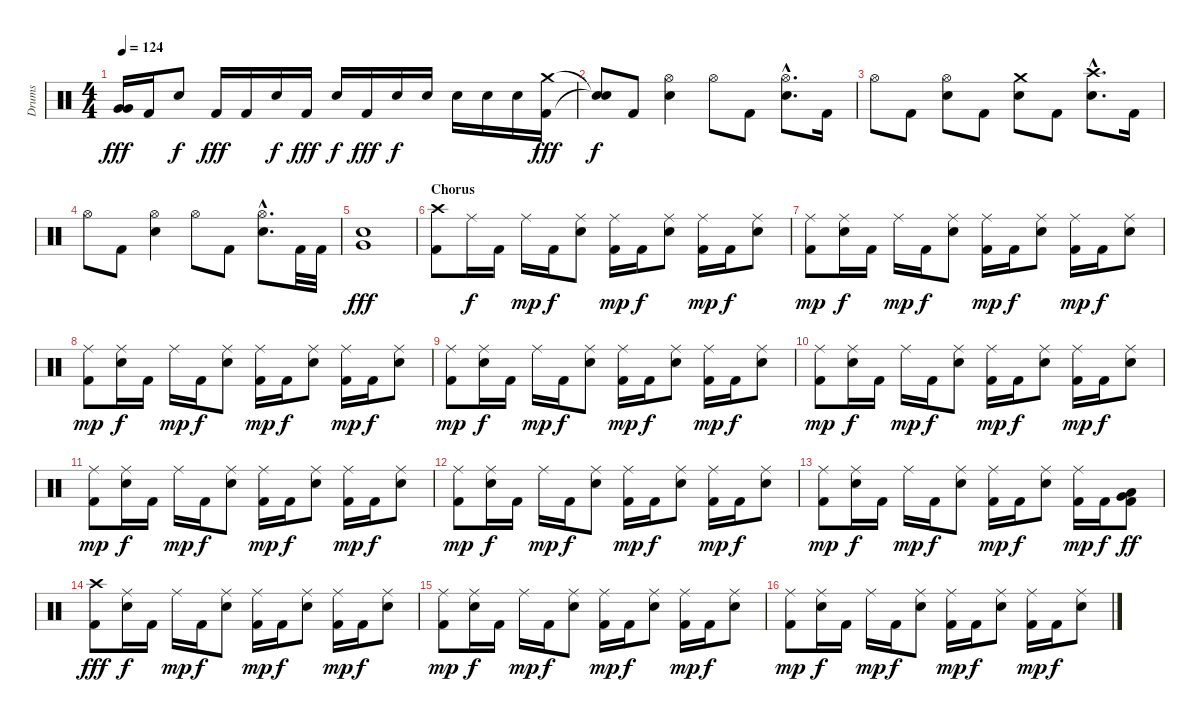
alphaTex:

\track ("Drums" "Drums") {instrument percussion}
\staff {score}
\articulation defaults
\ts (4 4)
\tempo 124
\clef neutral
\ks c
("Very Low Tom (hit)" "Very Low Tom (hit)").16{dy fff} "Kick (hit) 2".16 "Snare (hit) 2".8{dy f} "Kick (hit) 2".16{dy fff} "Kick (hit) 2".16 "Snare (hit) 2".16{dy f} "Kick (hit) 2".16{dy fff} "Snare (hit) 2".16{dy f} "Kick (hit) 2".16{dy fff} "Snare (hit) 2".16{dy f} "Snare (hit) 2".16 "Snare (hit) 2".16 "Snare (hit) 2".16 "Snare (hit) 2".16 ("Crash medium (hit)" "Kick (hit) 2").16{dy fff} |
("Snare (hit)"{t} "Snare (hit)"{t}).8{dy f} "Kick (hit) 2".8 ("Hi-Hat (open)" "Snare (hit) 2").4 "Hi-Hat (open)".8 "Kick (hit) 2".8 ("Hi-Hat (open)"{hac} "Snare (hit) 2"{hac}).8{d} "Kick (hit) 2".16 |
"Hi-Hat (open)".8 "Kick (hit) 2".8 ("Hi-Hat (open)" "Snare (hit) 2").8 "Kick (hit) 2".8 ("Crash medium (hit)" "Snare (hit) 2").8 "Kick (hit) 2".8 ("Crash high (hit)"{hac} "Snare (hit) 2"{hac}).8{d} "Kick (hit) 2".16 |
"Hi-Hat (open)".8 "Kick (hit) 2".8 ("Hi-Hat (open)" "Snare (hit) 2").4 "Hi-Hat (open)".8 "Kick (hit) 2".8 ("Hi-Hat (open)"{hac} "Snare (hit) 2"{hac}).8{d} "Kick (hit) 2".32 "Kick (hit) 2".32 |
("Snare (hit) 2" "Very Low Tom (hit)").1{dy fff} |
\section ("" "Chorus")
("Crash high (hit)" "Kick (hit) 2").8 "Ride (middle)".16{dy f} "Kick (hit) 2".16 "Ride (middle)".16{dy mp} "Kick (hit) 2".16{dy f} ("Ride (middle)" "Snare (hit) 2").8 ("Ride (middle)" "Kick (hit) 2").16{dy mp} "Kick (hit) 2".16{dy f} ("Ride (middle)" "Snare (hit) 2").8 ("Ride (middle)" "Kick (hit) 2").16{dy mp} "Kick (hit) 2".16{dy f} ("Ride (middle)" "Snare (hit) 2").8 |
("Ride (middle)" "Kick (hit) 2").8{dy mp} ("Ride (middle)" "Snare (hit) 2").16{dy f} "Kick (hit) 2".16 "Ride (middle)".16{dy mp} "Kick (hit) 2".16{dy f} ("Ride (middle)" "Snare (hit) 2").8 ("Ride (middle)" "Kick (hit) 2").16{dy mp} "Kick (hit) 2".16{dy f} ("Ride (middle)" "Snare (hit) 2").8 ("Ride (middle)" "Kick (hit) 2").16{dy mp} "Kick (hit) 2".16{dy f} ("Ride (middle)" "Snare (hit) 2").8 |
("Ride (middle)" "Kick (hit) 2").8{dy mp} ("Ride (middle)" "Snare (hit) 2").16{dy f} "Kick (hit) 2".16 "Ride (middle)".16{dy mp} "Kick (hit) 2".16{dy f} ("Ride (middle)" "Snare (hit) 2").8 ("Ride (middle)" "Kick (hit) 2").16{dy mp} "Kick (hit) 2".16{dy f} ("Ride (middle)" "Snare (hit) 2").8 ("Ride (middle)" "Kick (hit) 2").16{dy mp} "Kick (hit) 2".16{dy f} ("Ride (middle)" "Snare (hit) 2").8 |
("Ride (middle)" "Kick (hit) 2").8{dy mp} ("Ride (middle)" "Snare (hit) 2").16{dy f} "Kick (hit) 2".16 "Ride (middle)".16{dy mp} "Kick (hit) 2".16{dy f} ("Ride (middle)" "Snare (hit) 2").8 ("Ride (middle)" "Kick (hit) 2").16{dy mp} "Kick (hit) 2".16{dy f} ("Ride (middle)" "Snare (hit) 2").8 ("Ride (middle)" "Kick (hit) 2").16{dy mp} "Kick (hit) 2".16{dy f} ("Ride (middle)" "Snare (hit) 2").8 |
("Ride (middle)" "Kick (hit) 2").8{dy mp} ("Ride (middle)" "Snare (hit) 2").16{dy f} "Kick (hit) 2".16 "Ride (middle)".16{dy mp} "Kick (hit) 2".16{dy f} ("Ride (middle)" "Snare (hit) 2").8 ("Ride (middle)" "Kick (hit) 2").16{dy mp} "Kick (hit) 2".16{dy f} ("Ride (middle)" "Snare (hit) 2").8 ("Ride (middle)" "Kick (hit) 2").16{dy mp} "Kick (hit) 2".16{dy f} ("Ride (middle)" "Snare (hit) 2").8 |
("Ride (middle)" "Kick (hit) 2").8{dy mp} ("Ride (middle)" "Snare (hit) 2").16{dy f} "Kick (hit) 2".16 "Ride (middle)".16{dy mp} "Kick (hit) 2".16{dy f} ("Ride (middle)" "Snare (hit) 2").8 ("Ride (middle)" "Kick (hit) 2").16{dy mp} "Kick (hit) 2".16{dy f} ("Ride (middle)" "Snare (hit) 2").8 ("Ride (middle)" "Kick (hit) 2").16{dy mp} "Kick (hit) 2".16{dy f} ("Ride (middle)" "Snare (hit) 2").8 |
("Ride (middle)" "Kick (hit) 2").8{dy mp} ("Ride (middle)" "Snare (hit) 2").16{dy f} "Kick (hit) 2".16 "Ride (middle)".16{dy mp} "Kick (hit) 2".16{dy f} ("Ride (middle)" "Snare (hit) 2").8 ("Ride (middle)" "Kick (hit) 2").16{dy mp} "Kick (hit) 2".16{dy f} ("Ride (middle)" "Snare (hit) 2").8 ("Ride (middle)" "Kick (hit) 2").16{dy mp} "Kick (hit) 2".16{dy f} ("Ride (middle)" "Snare (hit) 2").8 |
("Ride (middle)" "Kick (hit) 2").8{dy mp} ("Ride (middle)" "Snare (hit) 2").16{dy f} "Kick (hit) 2".16 "Ride (middle)".16{dy mp} "Kick (hit) 2".16{dy f} ("Ride (middle)" "Snare (hit) 2").8 ("Ride (middle)" "Kick (hit) 2").16{dy mp} "Kick (hit) 2".16{dy f} ("Ride (middle)" "Snare (hit) 2").8 ("Ride (middle)" "Kick (hit) 2").16{dy mp} "Kick (hit) 2".16{dy f} ("Low Tom (hit)" "Very Low Tom (hit)" "Kick (hit) 2").8{dy ff} |
("Crash high (hit)" "Kick (hit) 2").8{dy fff} ("Ride (middle)" "Snare (hit) 2").16{dy f} "Kick (hit) 2".16 "Ride (middle)".16{dy mp} "Kick (hit) 2".16{dy f} ("Ride (middle)" "Snare (hit) 2").8 ("Ride (middle)" "Kick (hit) 2").16{dy mp} "Kick (hit) 2".16{dy f} ("Ride (middle)" "Snare (hit) 2").8 ("Ride (middle)" "Kick (hit) 2").16{dy mp} "Kick (hit) 2".16{dy f} ("Ride (middle)" "Snare (hit) 2").8 |
("Ride (middle)" "Kick (hit) 2").8{dy mp} ("Ride (middle)" "Snare (hit) 2").16{dy f} "Kick (hit) 2".16 "Ride (middle)".16{dy mp} "Kick (hit) 2".16{dy f} ("Ride (middle)" "Snare (hit) 2").8 ("Ride (middle)" "Kick (hit) 2").16{dy mp} "Kick (hit) 2".16{dy f} ("Ride (middle)" "Snare (hit) 2").8 ("Ride (middle)" "Kick (hit) 2").16{dy mp} "Kick (hit) 2".16{dy f} ("Ride (middle)" "Snare (hit) 2").8 |
("Ride (middle)" "Kick (hit) 2").8{dy mp} ("Ride (middle)" "Snare (hit) 2").16{dy f} "Kick (hit) 2".16 "Ride (middle)".16{dy mp} "Kick (hit) 2".16{dy f} ("Ride (middle)" "Snare (hit) 2").8 ("Ride (middle)" "Kick (hit) 2").16{dy mp} "Kick (hit) 2".16{dy f} ("Ride (middle)" "Snare (hit) 2").8 ("Ride (middle)" "Kick (hit) 2").16{dy mp} "Kick (hit) 2".16{dy f} ("Ride (middle)" "Snare (hit) 2").8
